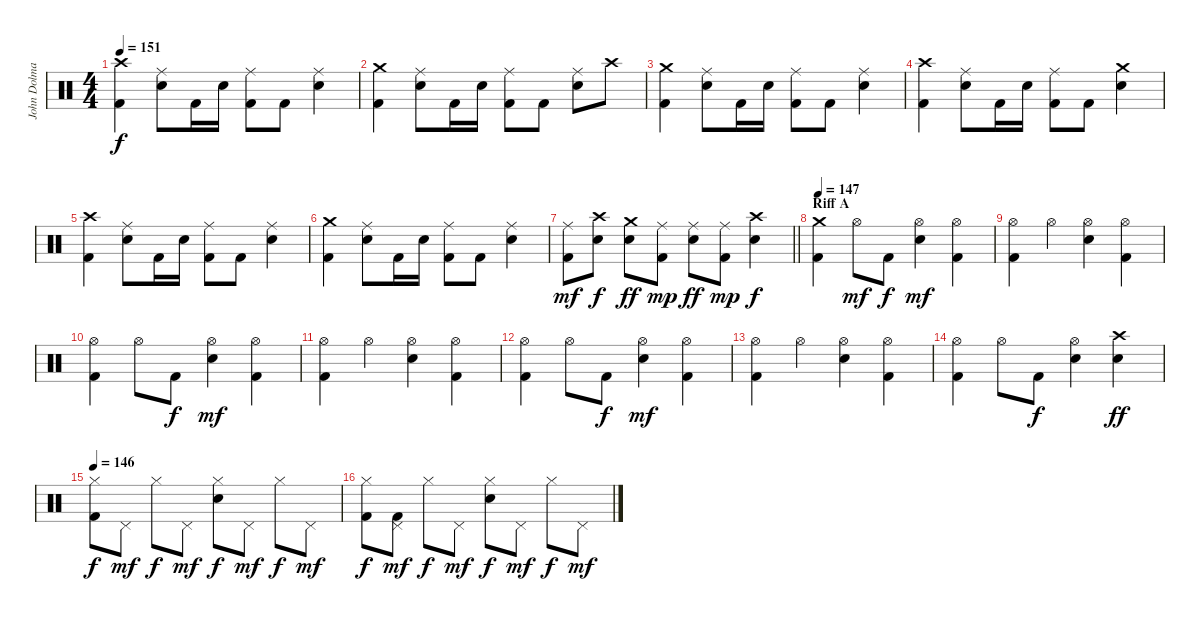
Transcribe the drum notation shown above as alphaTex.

\track ("John Dolmayan" "John Dolma") {instrument percussion}
\staff {score}
\articulation defaults
\ts (4 4)
\tempo 151
\clef neutral
\ks c
("Crash high (hit)" "Kick (hit) 2").4{dy f} ("Ride (middle)" "Electric Snare (hit)").8 "Kick (hit) 2".16 "Electric Snare (hit)".16 ("Ride (middle)" "Kick (hit) 2").8 "Kick (hit) 2".8 ("Ride (middle)" "Electric Snare (hit)").4 |
("Crash medium (hit)" "Kick (hit) 2").4 ("Ride (middle)" "Electric Snare (hit)").8 "Kick (hit) 2".16 "Electric Snare (hit)".16 ("Ride (middle)" "Kick (hit) 2").8 "Kick (hit) 2".8 ("Ride (middle)" "Electric Snare (hit)").8 "Crash high (hit)".8 |
("Crash medium (hit)" "Kick (hit) 2").4 ("Ride (middle)" "Electric Snare (hit)").8 "Kick (hit) 2".16 "Electric Snare (hit)".16 ("Ride (middle)" "Kick (hit) 2").8 "Kick (hit) 2".8 ("Ride (middle)" "Electric Snare (hit)").4 |
("Crash high (hit)" "Kick (hit) 2").4 ("Ride (middle)" "Electric Snare (hit)").8 "Kick (hit) 2".16 "Electric Snare (hit)".16 ("Ride (middle)" "Kick (hit) 2").8 "Kick (hit) 2".8 ("Crash medium (hit)" "Electric Snare (hit)").4 |
("Crash high (hit)" "Kick (hit) 2").4 ("Ride (middle)" "Electric Snare (hit)").8 "Kick (hit) 2".16 "Electric Snare (hit)".16 ("Ride (middle)" "Kick (hit) 2").8 "Kick (hit) 2".8 ("Ride (middle)" "Electric Snare (hit)").4 |
("Crash medium (hit)" "Kick (hit) 2").4 ("Ride (middle)" "Electric Snare (hit)").8 "Kick (hit) 2".16 "Electric Snare (hit)".16 ("Ride (middle)" "Kick (hit) 2").8 "Kick (hit) 2".8 ("Ride (middle)" "Electric Snare (hit)").4 |
\barLineRight lightlight
("Ride (middle)" "Kick (hit) 2").8{dy mf} ("Crash high (hit)" "Electric Snare (hit)").8{dy f} ("Crash medium (hit)" "Electric Snare (hit)").8{dy ff} ("Ride (middle)" "Kick (hit) 2").8{dy mp} ("Ride (middle)" "Electric Snare (hit)").8{dy ff} ("Ride (middle)" "Kick (hit) 2").8{dy mp} ("Crash high (hit)" "Electric Snare (hit)").4{dy f} |
\section ("" "Riff A")
\tempo 147
("Crash medium (hit)" "Kick (hit) 2").4 "Hi-Hat (open)".8{dy mf} "Kick (hit) 2".8{dy f} ("Hi-Hat (open)" "Electric Snare (hit)").4{dy mf} ("Hi-Hat (open)" "Kick (hit) 2").4 |
("Hi-Hat (open)" "Kick (hit) 2").4 "Hi-Hat (open)".4 ("Hi-Hat (open)" "Electric Snare (hit)").4 ("Hi-Hat (open)" "Kick (hit) 2").4 |
("Hi-Hat (open)" "Kick (hit) 2").4 "Hi-Hat (open)".8 "Kick (hit) 2".8{dy f} ("Hi-Hat (open)" "Electric Snare (hit)").4{dy mf} ("Hi-Hat (open)" "Kick (hit) 2").4 |
("Hi-Hat (open)" "Kick (hit) 2").4 "Hi-Hat (open)".4 ("Hi-Hat (open)" "Electric Snare (hit)").4 ("Hi-Hat (open)" "Kick (hit) 2").4 |
("Hi-Hat (open)" "Kick (hit) 2").4 "Hi-Hat (open)".8 "Kick (hit) 2".8{dy f} ("Hi-Hat (open)" "Electric Snare (hit)").4{dy mf} ("Hi-Hat (open)" "Kick (hit) 2").4 |
("Hi-Hat (open)" "Kick (hit) 2").4 "Hi-Hat (open)".4 ("Hi-Hat (open)" "Electric Snare (hit)").4 ("Hi-Hat (open)" "Kick (hit) 2").4 |
("Hi-Hat (open)" "Kick (hit) 2").4 "Hi-Hat (open)".8 "Kick (hit) 2".8{dy f} ("Hi-Hat (open)" "Electric Snare (hit)").4 ("Crash high (hit)" "Electric Snare (hit)").4{dy ff} |
\tempo 146
("Hi-Hat (closed)" "Kick (hit) 2").8{dy f} "Pedal Hi-Hat (hit)".8{dy mf} "Hi-Hat (closed)".8{dy f} "Pedal Hi-Hat (hit)".8{dy mf} ("Hi-Hat (closed)" "Electric Snare (hit)").8{dy f} "Pedal Hi-Hat (hit)".8{dy mf} "Hi-Hat (closed)".8{dy f} "Pedal Hi-Hat (hit)".8{dy mf} |
("Hi-Hat (closed)" "Kick (hit) 2").8{dy f} ("Pedal Hi-Hat (hit)" "Kick (hit) 2").8{dy mf} "Hi-Hat (closed)".8{dy f} "Pedal Hi-Hat (hit)".8{dy mf} ("Hi-Hat (closed)" "Electric Snare (hit)").8{dy f} "Pedal Hi-Hat (hit)".8{dy mf} "Hi-Hat (closed)".8{dy f} "Pedal Hi-Hat (hit)".8{dy mf}
